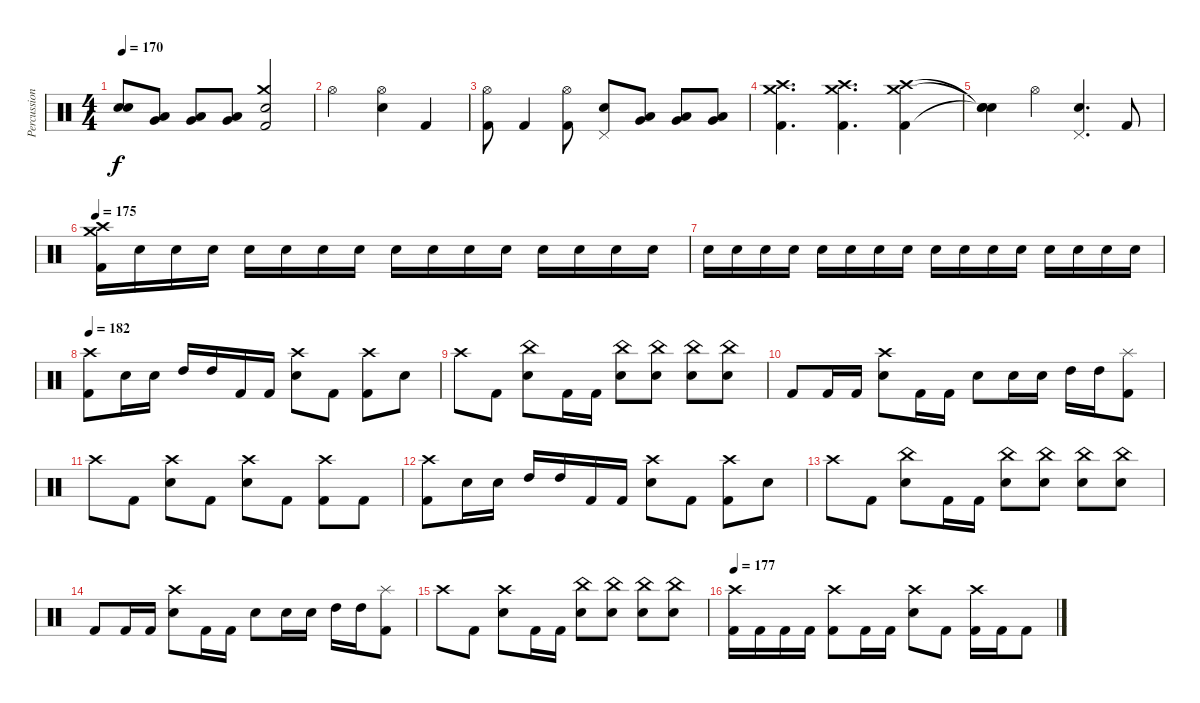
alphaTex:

\track ("Percussion" "Percussion") {instrument percussion}
\staff {score}
\articulation defaults
\ts (4 4)
\tempo 170
\clef neutral
\ks c
("Snare (hit)"{t} "Snare (hit)"{t}).8{dy f} ("Low Tom (hit)" "Very Low Tom (hit)").8 ("Low Tom (hit)" "Very Low Tom (hit)").8 ("Low Tom (hit)" "Very Low Tom (hit)").8 ("Crash medium (hit)" "Snare (hit) 2" "Kick (hit) 2").2 |
"Hi-Hat (open)".2 ("Hi-Hat (open)" "Snare (hit) 2").4 "Kick (hit) 2".4 |
("Hi-Hat (open)" "Kick (hit) 2").8 "Kick (hit) 2".4 ("Hi-Hat (open)" "Kick (hit) 2").8 ("Pedal Hi-Hat (hit)" "Snare (hit) 2").8 ("Very Low Tom (hit)" "Low Tom (hit)").8 ("Very Low Tom (hit)" "Low Tom (hit)").8 ("Very Low Tom (hit)" "Low Tom (hit)").8 |
("Crash high (hit)" "Crash medium (hit)" "Kick (hit) 2").4{d} ("Crash high (hit)" "Crash medium (hit)" "Kick (hit) 2").4{d} ("Crash high (hit)" "Crash medium (hit)" "Kick (hit) 2").4 |
("Snare (hit)"{t} "Snare (hit)"{t} "Snare (hit)"{t}).4 "Hi-Hat (open)".4 ("Pedal Hi-Hat (hit)" "Snare (hit) 2").4{d} "Kick (hit) 2".8 |
\tempo 175
("Crash high (hit)" "Crash medium (hit)" "Kick (hit) 2").16 "Snare (hit) 2".16{volume 11} "Snare (hit) 2".16{volume 10} "Snare (hit) 2".16 "Snare (hit) 2".16{volume 13} "Snare (hit) 2".16{volume 11} "Snare (hit) 2".16{volume 10} "Snare (hit) 2".16 "Snare (hit) 2".16{volume 13} "Snare (hit) 2".16{volume 11} "Snare (hit) 2".16{volume 10} "Snare (hit) 2".16 "Snare (hit) 2".16{volume 13} "Snare (hit) 2".16{volume 11} "Snare (hit) 2".16{volume 10} "Snare (hit) 2".16 |
"Snare (hit) 2".16{volume 13} "Snare (hit) 2".16{volume 11} "Snare (hit) 2".16{volume 10} "Snare (hit) 2".16 "Snare (hit) 2".16{volume 13} "Snare (hit) 2".16{volume 11} "Snare (hit) 2".16{volume 10} "Snare (hit) 2".16 "Snare (hit) 2".16{volume 13} "Snare (hit) 2".16{volume 11} "Snare (hit) 2".16{volume 10} "Snare (hit) 2".16 "Snare (hit) 2".16{volume 13} "Snare (hit) 2".16{volume 11} "Snare (hit) 2".16{volume 10} "Snare (hit) 2".16 |
\tempo 182
("Crash high (hit)" "Kick (hit) 2").8{volume 14} "Snare (hit) 2".16 "Snare (hit) 2".16 "High Tom (hit)".16 "High Tom (hit)".16 "Kick (hit) 2".16 "Kick (hit) 2".16 ("Crash high (hit)" "Snare (hit) 2").8 "Kick (hit) 2".8 ("Crash high (hit)" "Kick (hit) 2").8 "Snare (hit) 2".8 |
"Crash high (hit)".8 "Kick (hit) 2".8 ("China (hit)" "Snare (hit) 2").8 "Kick (hit) 2".16 "Kick (hit) 2".16 ("China (hit)" "Snare (hit) 2").8 ("China (hit)" "Snare (hit) 2").8 ("China (hit)" "Snare (hit) 2").8 ("China (hit)" "Snare (hit) 2").8 |
"Kick (hit) 2".8 "Kick (hit) 2".16 "Kick (hit) 2".16 ("Crash high (hit)" "Snare (hit) 2").8 "Kick (hit) 2".16 "Kick (hit) 2".16 "Snare (hit) 2".8 "Snare (hit) 2".16 "Snare (hit) 2".16 "High Tom (hit)".16 "High Tom (hit)".16 ("Splash (hit)" "Kick (hit) 2").8 |
"Crash high (hit)".8 "Kick (hit) 2".8 ("Crash high (hit)" "Snare (hit) 2").8 "Kick (hit) 2".8 ("Crash high (hit)" "Snare (hit) 2").8 "Kick (hit) 2".8 ("Crash high (hit)" "Kick (hit) 2").8 "Kick (hit) 2".8 |
("Crash high (hit)" "Kick (hit) 2").8 "Snare (hit) 2".16 "Snare (hit) 2".16 "High Tom (hit)".16 "High Tom (hit)".16 "Kick (hit) 2".16 "Kick (hit) 2".16 ("Crash high (hit)" "Snare (hit) 2").8 "Kick (hit) 2".8 ("Crash high (hit)" "Kick (hit) 2").8 "Snare (hit) 2".8 |
"Crash high (hit)".8 "Kick (hit) 2".8 ("China (hit)" "Snare (hit) 2").8 "Kick (hit) 2".16 "Kick (hit) 2".16 ("China (hit)" "Snare (hit) 2").8 ("China (hit)" "Snare (hit) 2").8 ("China (hit)" "Snare (hit) 2").8 ("China (hit)" "Snare (hit) 2").8 |
"Kick (hit) 2".8 "Kick (hit) 2".16 "Kick (hit) 2".16 ("Crash high (hit)" "Snare (hit) 2").8 "Kick (hit) 2".16 "Kick (hit) 2".16 "Snare (hit) 2".8 "Snare (hit) 2".16 "Snare (hit) 2".16 "High Tom (hit)".16 "High Tom (hit)".16 ("Splash (hit)" "Kick (hit) 2").8 |
"Crash high (hit)".8 "Kick (hit) 2".8 ("Crash high (hit)" "Snare (hit) 2").8 "Kick (hit) 2".16 "Kick (hit) 2".16 ("China (hit)" "Snare (hit) 2").8 ("China (hit)" "Snare (hit) 2").8 ("China (hit)" "Snare (hit) 2").8 ("China (hit)" "Snare (hit) 2").8 |
\tempo 177
("Crash high (hit)" "Kick (hit) 2").16 "Kick (hit) 2".16 "Kick (hit) 2".16 "Kick (hit) 2".16 ("Crash high (hit)" "Kick (hit) 2").8 "Kick (hit) 2".16 "Kick (hit) 2".16 ("Crash high (hit)" "Snare (hit) 2").8 "Kick (hit) 2".8 ("Crash high (hit)" "Kick (hit) 2").16 "Kick (hit) 2".16 "Kick (hit) 2".8
